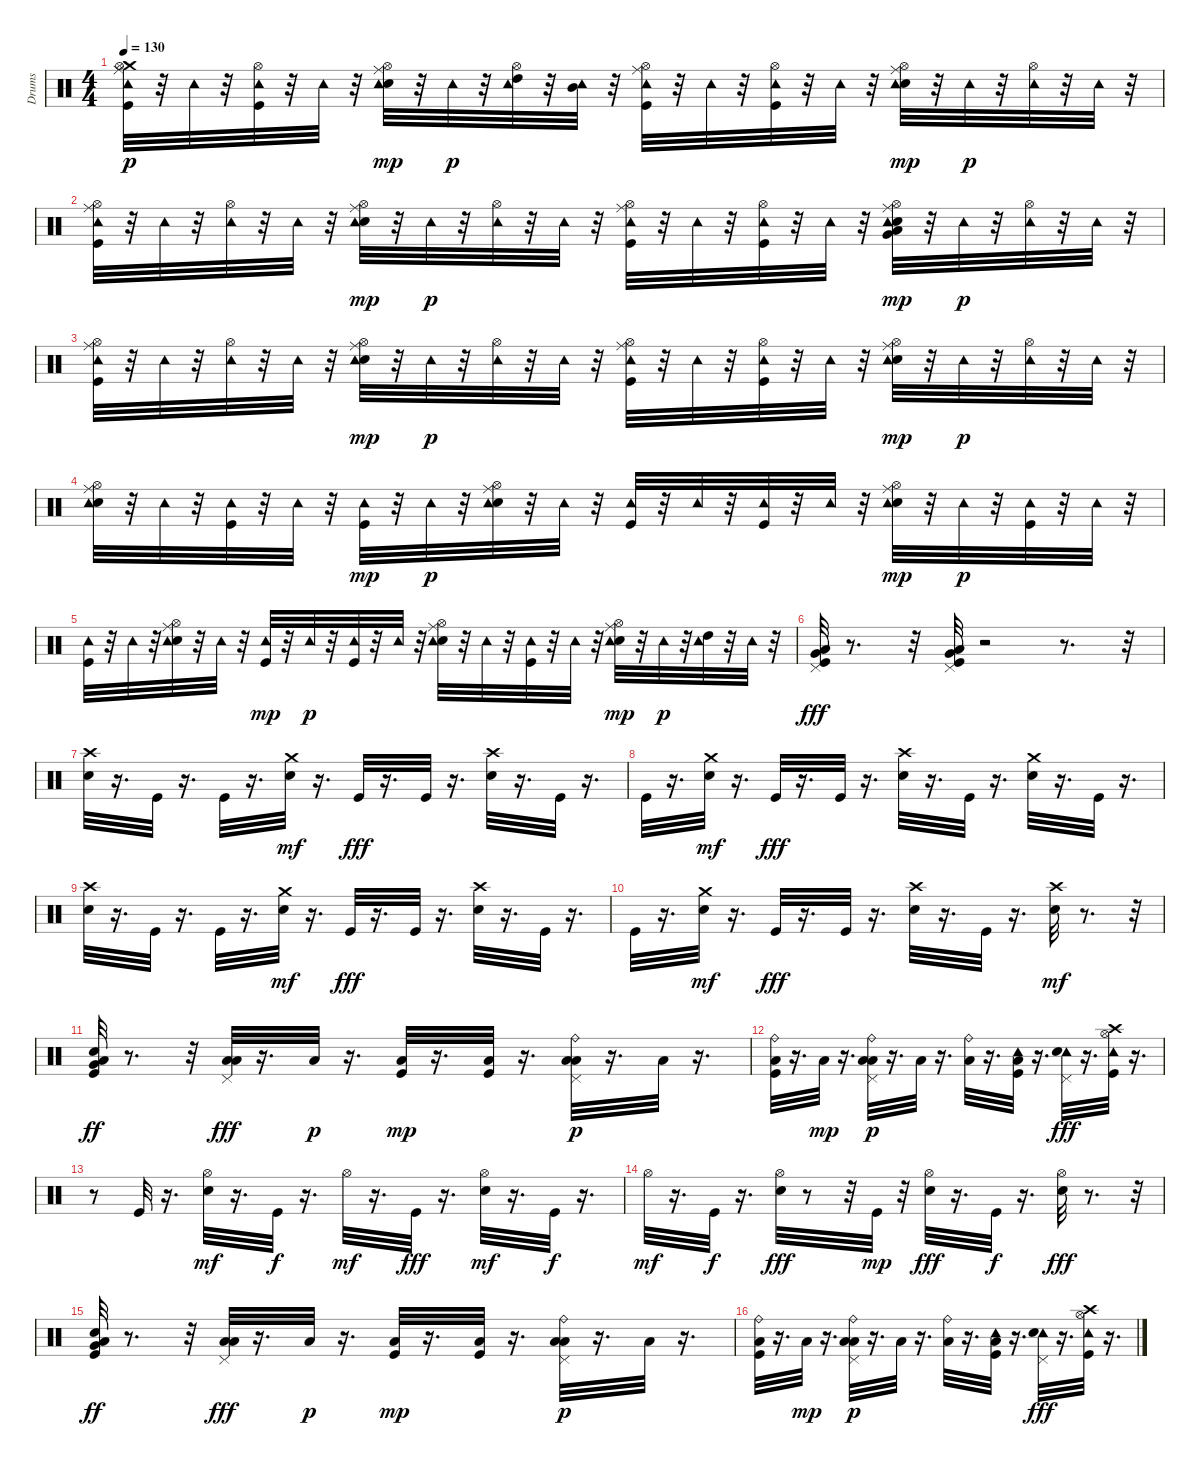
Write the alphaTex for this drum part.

\track ("Drums" "Drums") {instrument percussion}
\staff {score}
\articulation defaults
\ts (4 4)
\tempo 130
\clef neutral
\ks c
("Crash medium (hit)" "Ride (middle)" "Kick (hit)" "Hi-Hat (open)" "Tambourine (hit)").32{dy p} r.32 "Tambourine (hit)".32 r.32 ("Hi-Hat (open)" "Kick (hit)" "Tambourine (hit)").32 r.32 "Tambourine (hit)".32 r.32 ("Ride (middle)" "Electric Snare (hit)" "Hi-Hat (open)" "Tambourine (hit)").32{dy mp} r.32 "Tambourine (hit)".32{dy p} r.32 ("High Tom (hit)" "Hi-Hat (open)" "Tambourine (hit)").32 r.32 ("Mid Tom (hit)" "Tambourine (hit)").32 r.32 ("Ride (middle)" "Kick (hit)" "Hi-Hat (open)" "Tambourine (hit)").32 r.32 "Tambourine (hit)".32 r.32 ("Hi-Hat (open)" "Kick (hit)" "Tambourine (hit)").32 r.32 "Tambourine (hit)".32 r.32 ("Ride (middle)" "Electric Snare (hit)" "Hi-Hat (open)" "Tambourine (hit)").32{dy mp} r.32 "Tambourine (hit)".32{dy p} r.32 ("Hi-Hat (open)" "Tambourine (hit)").32 r.32 "Tambourine (hit)".32 r.32 |
("Ride (middle)" "Kick (hit)" "Hi-Hat (open)" "Tambourine (hit)").32 r.32 "Tambourine (hit)".32 r.32 ("Hi-Hat (open)" "Tambourine (hit)").32 r.32 "Tambourine (hit)".32 r.32 ("Ride (middle)" "Electric Snare (hit)" "Hi-Hat (open)" "Tambourine (hit)").32{dy mp} r.32 "Tambourine (hit)".32{dy p} r.32 ("Hi-Hat (open)" "Tambourine (hit)").32 r.32 "Tambourine (hit)".32 r.32 ("Ride (middle)" "Kick (hit)" "Hi-Hat (open)" "Tambourine (hit)").32 r.32 "Tambourine (hit)".32 r.32 ("Kick (hit)" "Hi-Hat (open)" "Tambourine (hit)").32 r.32 "Tambourine (hit)".32 r.32 ("Very Low Tom (hit)" "Low Tom (hit)" "Ride (middle)" "Electric Snare (hit)" "Hi-Hat (open)" "Tambourine (hit)").32{dy mp} r.32 "Tambourine (hit)".32{dy p} r.32 ("Hi-Hat (open)" "Tambourine (hit)").32 r.32 "Tambourine (hit)".32 r.32 |
("Ride (middle)" "Kick (hit)" "Hi-Hat (open)" "Tambourine (hit)").32 r.32 "Tambourine (hit)".32 r.32 ("Hi-Hat (open)" "Tambourine (hit)").32 r.32 "Tambourine (hit)".32 r.32 ("Ride (middle)" "Electric Snare (hit)" "Hi-Hat (open)" "Tambourine (hit)").32{dy mp} r.32 "Tambourine (hit)".32{dy p} r.32 ("Hi-Hat (open)" "Tambourine (hit)").32 r.32 "Tambourine (hit)".32 r.32 ("Kick (hit)" "Ride (middle)" "Hi-Hat (open)" "Tambourine (hit)").32 r.32 "Tambourine (hit)".32 r.32 ("Hi-Hat (open)" "Kick (hit)" "Tambourine (hit)").32 r.32 "Tambourine (hit)".32 r.32 ("Ride (middle)" "Electric Snare (hit)" "Hi-Hat (open)" "Tambourine (hit)").32{dy mp} r.32 "Tambourine (hit)".32{dy p} r.32 ("Hi-Hat (open)" "Tambourine (hit)").32 r.32 "Tambourine (hit)".32 r.32 |
("Electric Snare (hit)" "Ride (middle)" "Hi-Hat (open)" "Tambourine (hit)").32 r.32 "Tambourine (hit)".32 r.32 ("Kick (hit)" "Tambourine (hit)").32 r.32 "Tambourine (hit)".32 r.32 ("Kick (hit)" "Tambourine (hit)").32{dy mp} r.32 "Tambourine (hit)".32{dy p} r.32 ("Ride (middle)" "Electric Snare (hit)" "Hi-Hat (open)" "Tambourine (hit)").32 r.32 "Tambourine (hit)".32 r.32 ("Kick (hit)" "Tambourine (hit)").32 r.32 "Tambourine (hit)".32 r.32 ("Kick (hit)" "Tambourine (hit)").32 r.32 "Tambourine (hit)".32 r.32 ("Ride (middle)" "Electric Snare (hit)" "Hi-Hat (open)" "Tambourine (hit)").32{dy mp} r.32 "Tambourine (hit)".32{dy p} r.32 ("Kick (hit)" "Tambourine (hit)").32 r.32 "Tambourine (hit)".32 r.32 |
("Kick (hit)" "Tambourine (hit)").32 r.32 "Tambourine (hit)".32 r.32 ("Ride (middle)" "Electric Snare (hit)" "Hi-Hat (open)" "Tambourine (hit)").32 r.32 "Tambourine (hit)".32 r.32 ("Kick (hit)" "Tambourine (hit)").32{dy mp} r.32 "Tambourine (hit)".32{dy p} r.32 ("Kick (hit)" "Tambourine (hit)").32 r.32 "Tambourine (hit)".32 r.32 ("Electric Snare (hit)" "Ride (middle)" "Hi-Hat (open)" "Tambourine (hit)").32 r.32 "Tambourine (hit)".32 r.32 ("Kick (hit)" "Tambourine (hit)").32 r.32 "Tambourine (hit)".32 r.32 ("Ride (middle)" "Electric Snare (hit)" "Hi-Hat (open)" "Tambourine (hit)").32{dy mp} r.32 "Tambourine (hit)".32{dy p} r.32 ("High Tom (hit)" "Tambourine (hit)").32 r.32 "Tambourine (hit)".32 r.32 |
("Pedal Hi-Hat (hit)" "Low Floor Tom (hit)" "Very Low Tom (hit)" "Kick (hit)").32{dy fff} r.8{d} r.32 ("Pedal Hi-Hat (hit)" "Low Floor Tom (hit)" "Very Low Tom (hit)" "Kick (hit)").32 r.2 r.8{d} r.32 |
("Crash high (hit)" "Electric Snare (hit)").32 r.16{d} "Kick (hit)".32 r.16{d} "Kick (hit)".32 r.16{d} ("Electric Snare (hit)" "Crash medium (hit)").32{dy mf} r.16{d} "Kick (hit)".32{dy fff} r.16{d} "Kick (hit)".32 r.16{d} ("Crash high (hit)" "Electric Snare (hit)").32 r.16{d} "Kick (hit)".32 r.16{d} |
"Kick (hit)".32 r.16{d} ("Electric Snare (hit)" "Crash medium (hit)").32{dy mf} r.16{d} "Kick (hit)".32{dy fff} r.16{d} "Kick (hit)".32 r.16{d} ("Crash high (hit)" "Electric Snare (hit)").32 r.16{d} "Kick (hit)".32 r.16{d} ("Crash medium (hit)" "Electric Snare (hit)").32 r.16{d} "Kick (hit)".32 r.16{d} |
("Crash high (hit)" "Electric Snare (hit)").32 r.16{d} "Kick (hit)".32 r.16{d} "Kick (hit)".32 r.16{d} ("Electric Snare (hit)" "Crash medium (hit)").32{dy mf} r.16{d} "Kick (hit)".32{dy fff} r.16{d} "Kick (hit)".32 r.16{d} ("Crash high (hit)" "Electric Snare (hit)").32 r.16{d} "Kick (hit)".32 r.16{d} |
"Kick (hit)".32 r.16{d} ("Electric Snare (hit)" "Crash medium (hit)").32{dy mf} r.16{d} "Kick (hit)".32{dy fff} r.16{d} "Kick (hit)".32 r.16{d} ("Crash high (hit)" "Electric Snare (hit)").32 r.16{d} "Kick (hit)".32 r.16{d} ("Electric Snare (hit)" "Crash high (hit)").32{dy mf} r.8{d} r.32 |
("Kick (hit)" "Very Low Tom (hit)" "Low Floor Tom (hit)" "Electric Snare (hit)").32{dy ff} r.8{d} r.32 ("Pedal Hi-Hat (hit)" "Low Floor Tom (hit)" "Low Tom (hit)").32{dy fff} r.16{d} "Low Floor Tom (hit)".32{dy p} r.16{d} ("Low Floor Tom (hit)" "Kick (hit)").32{dy mp} r.16{d} ("Kick (hit)" "Low Floor Tom (hit)").32 r.16{d} ("Pedal Hi-Hat (hit)" "Low Floor Tom (hit)" "Low Tom (hit)" "Ride (bell)").32{dy p} r.16{d} "Low Floor Tom (hit)".32 r.16{d} |
("Kick (hit)" "Low Floor Tom (hit)" "Ride (bell)").32 r.16{d} "Low Floor Tom (hit)".32{dy mp} r.16{d} ("Pedal Hi-Hat (hit)" "Low Floor Tom (hit)" "Low Tom (hit)" "Ride (bell)").32{dy p} r.16{d} "Low Floor Tom (hit)".32 r.16{d} ("Low Floor Tom (hit)" "Ride (bell)").32 r.16{d} ("Kick (hit)" "Low Floor Tom (hit)" "Tambourine (hit)").32 r.16{d} ("Pedal Hi-Hat (hit)" "Tambourine (hit)" "Electric Snare (hit)").32{dy fff} r.16{d} ("Tambourine (hit)" "Hi-Hat (open)" "Crash high (hit)" "Kick (hit)").32 r.16{d} |
r.8 "Kick (hit)".32 r.16{d} ("Electric Snare (hit)" "Hi-Hat (open)").32{dy mf} r.16{d} "Kick (hit)".32{dy f} r.16{d} "Hi-Hat (open)".32{dy mf} r.16{d} "Kick (hit)".32{dy fff} r.16{d} ("Electric Snare (hit)" "Hi-Hat (open)").32{dy mf} r.16{d} "Kick (hit)".32{dy f} r.16{d} |
"Hi-Hat (open)".32{dy mf} r.16{d} "Kick (hit)".32{dy f} r.16{d} ("Hi-Hat (open)" "Electric Snare (hit)").32{dy fff} r.8 r.32 "Kick (hit)".32{dy mp} r.32 ("Hi-Hat (open)" "Electric Snare (hit)").32{dy fff} r.16{d} "Kick (hit)".32{dy f} r.16{d} ("Hi-Hat (open)" "Electric Snare (hit)").32{dy fff} r.8{d} r.32 |
("Kick (hit)" "Very Low Tom (hit)" "Low Floor Tom (hit)" "Electric Snare (hit)").32{dy ff} r.8{d} r.32 ("Pedal Hi-Hat (hit)" "Low Floor Tom (hit)" "Low Tom (hit)").32{dy fff} r.16{d} "Low Floor Tom (hit)".32{dy p} r.16{d} ("Low Floor Tom (hit)" "Kick (hit)").32{dy mp} r.16{d} ("Kick (hit)" "Low Floor Tom (hit)").32 r.16{d} ("Pedal Hi-Hat (hit)" "Low Floor Tom (hit)" "Low Tom (hit)" "Ride (bell)").32{dy p} r.16{d} "Low Floor Tom (hit)".32 r.16{d} |
("Kick (hit)" "Low Floor Tom (hit)" "Ride (bell)").32 r.16{d} "Low Floor Tom (hit)".32{dy mp} r.16{d} ("Pedal Hi-Hat (hit)" "Low Floor Tom (hit)" "Low Tom (hit)" "Ride (bell)").32{dy p} r.16{d} "Low Floor Tom (hit)".32 r.16{d} ("Low Floor Tom (hit)" "Ride (bell)").32 r.16{d} ("Kick (hit)" "Low Floor Tom (hit)" "Tambourine (hit)").32 r.16{d} ("Pedal Hi-Hat (hit)" "Tambourine (hit)" "Electric Snare (hit)").32{dy fff} r.16{d} ("Tambourine (hit)" "Hi-Hat (open)" "Crash high (hit)" "Kick (hit)").32 r.16{d}
